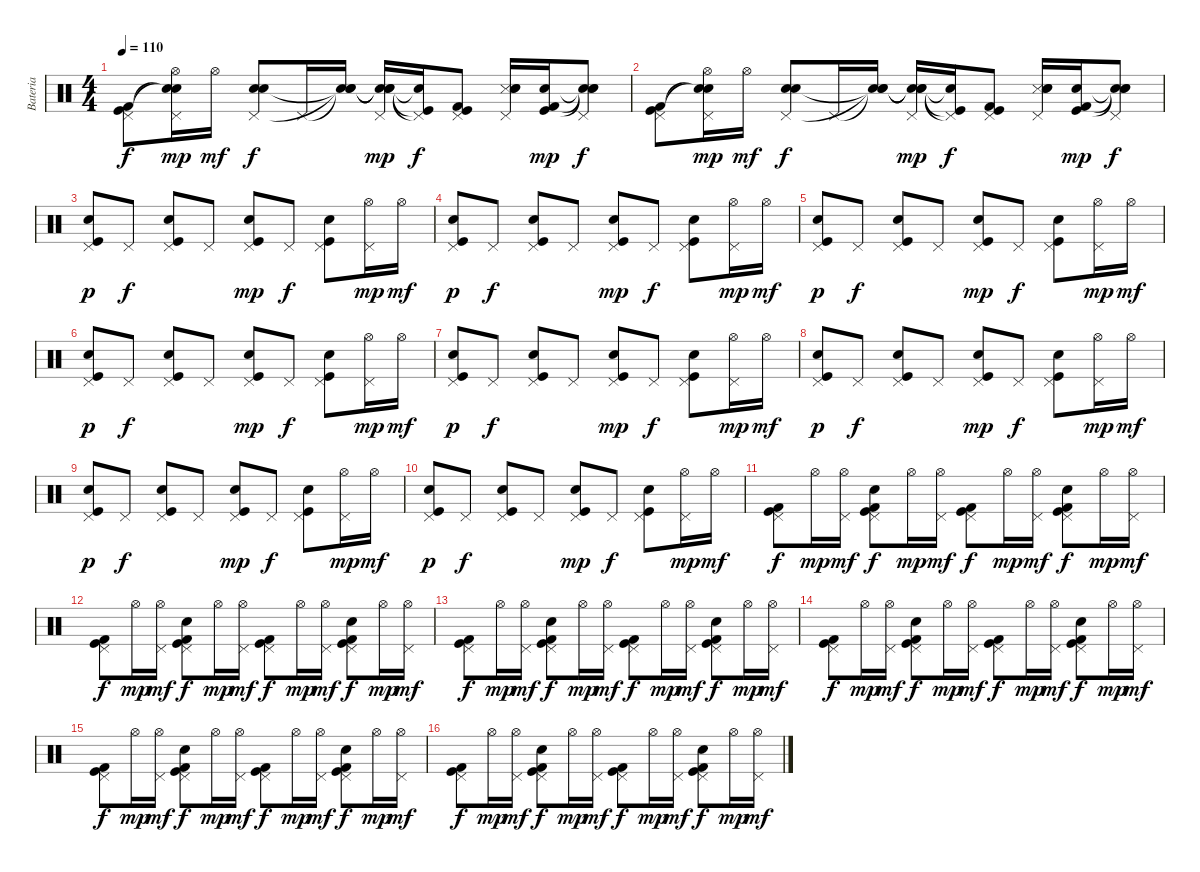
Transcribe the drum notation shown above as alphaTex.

\track ("Bateria" "Bateria") {instrument percussion}
\staff {score}
\articulation defaults
\ts (4 4)
\tempo 110
\clef neutral
\ks c
("Kick (hit)" "Kick (hit) 2" "Pedal Hi-Hat (hit)").8{dy f} ("Snare (hit)"{t} "Snare (hit)"{t} "Hi-Hat (open)" "Pedal Hi-Hat (hit)").16{dy mp} "Hi-Hat (open)".16{dy mf} ("Snare (hit) 2" "Electric Snare (hit)" "Pedal Hi-Hat (hit)").8{dy f} "Pedal Hi-Hat (hit)".16 ("Snare (hit)"{t} "Snare (hit)"{t} "Snare (hit)"{t}).16 ("Snare (hit)"{t} "Snare (hit)"{t} "Snare (hit)"{t} "Pedal Hi-Hat (hit)").16{dy mp} ("Snare (hit) 2"{t} "Pedal Hi-Hat (hit)"{t} "Kick (hit)"{t}).16{dy f} ("Kick (hit) 2" "Kick (hit)" "Pedal Hi-Hat (hit)").8 ("Snare (side stick) 3" "Electric Snare (hit)" "Snare (hit) 2" "Pedal Hi-Hat (hit)").16 ("Kick (hit) 2" "Snare (hit) 2" "Kick (hit)").16{dy mp} ("Snare (hit)"{t} "Snare (hit)"{t} "Snare (hit)"{t} "Pedal Hi-Hat (hit)").8{dy f} |
("Kick (hit)" "Kick (hit) 2" "Pedal Hi-Hat (hit)").8 ("Snare (hit)"{t} "Snare (hit)"{t} "Hi-Hat (open)" "Pedal Hi-Hat (hit)").16{dy mp} "Hi-Hat (open)".16{dy mf} ("Snare (hit) 2" "Electric Snare (hit)" "Pedal Hi-Hat (hit)").8{dy f} "Pedal Hi-Hat (hit)".16 ("Snare (hit)"{t} "Snare (hit)"{t} "Snare (hit)"{t}).16 ("Snare (hit)"{t} "Snare (hit)"{t} "Snare (hit)"{t} "Pedal Hi-Hat (hit)").16{dy mp} ("Snare (hit) 2"{t} "Pedal Hi-Hat (hit)"{t} "Kick (hit)"{t}).16{dy f} ("Kick (hit) 2" "Kick (hit)" "Pedal Hi-Hat (hit)").8 ("Snare (side stick) 3" "Electric Snare (hit)" "Snare (hit) 2" "Pedal Hi-Hat (hit)").16 ("Kick (hit) 2" "Snare (hit) 2" "Kick (hit)").16{dy mp} ("Snare (hit)"{t} "Snare (hit)"{t} "Snare (hit)"{t} "Pedal Hi-Hat (hit)").8{dy f} |
("Kick (hit)" "Electric Snare (hit)" "Pedal Hi-Hat (hit)").8{dy p} "Pedal Hi-Hat (hit)".8{dy f} ("Kick (hit)" "Electric Snare (hit)" "Pedal Hi-Hat (hit)").8 "Pedal Hi-Hat (hit)".8 ("Kick (hit)" "Electric Snare (hit)" "Pedal Hi-Hat (hit)").8{dy mp} "Pedal Hi-Hat (hit)".8{dy f} ("Kick (hit)" "Electric Snare (hit)" "Pedal Hi-Hat (hit)").8 ("Pedal Hi-Hat (hit)" "Hi-Hat (open)").16{dy mp} "Hi-Hat (open)".16{dy mf} |
("Kick (hit)" "Electric Snare (hit)" "Pedal Hi-Hat (hit)").8{dy p} "Pedal Hi-Hat (hit)".8{dy f} ("Kick (hit)" "Electric Snare (hit)" "Pedal Hi-Hat (hit)").8 "Pedal Hi-Hat (hit)".8 ("Kick (hit)" "Electric Snare (hit)" "Pedal Hi-Hat (hit)").8{dy mp} "Pedal Hi-Hat (hit)".8{dy f} ("Kick (hit)" "Electric Snare (hit)" "Pedal Hi-Hat (hit)").8 ("Pedal Hi-Hat (hit)" "Hi-Hat (open)").16{dy mp} "Hi-Hat (open)".16{dy mf} |
("Kick (hit)" "Electric Snare (hit)" "Pedal Hi-Hat (hit)").8{dy p} "Pedal Hi-Hat (hit)".8{dy f} ("Kick (hit)" "Electric Snare (hit)" "Pedal Hi-Hat (hit)").8 "Pedal Hi-Hat (hit)".8 ("Kick (hit)" "Electric Snare (hit)" "Pedal Hi-Hat (hit)").8{dy mp} "Pedal Hi-Hat (hit)".8{dy f} ("Kick (hit)" "Electric Snare (hit)" "Pedal Hi-Hat (hit)").8 ("Pedal Hi-Hat (hit)" "Hi-Hat (open)").16{dy mp} "Hi-Hat (open)".16{dy mf} |
("Kick (hit)" "Electric Snare (hit)" "Pedal Hi-Hat (hit)").8{dy p} "Pedal Hi-Hat (hit)".8{dy f} ("Kick (hit)" "Electric Snare (hit)" "Pedal Hi-Hat (hit)").8 "Pedal Hi-Hat (hit)".8 ("Kick (hit)" "Electric Snare (hit)" "Pedal Hi-Hat (hit)").8{dy mp} "Pedal Hi-Hat (hit)".8{dy f} ("Kick (hit)" "Electric Snare (hit)" "Pedal Hi-Hat (hit)").8 ("Pedal Hi-Hat (hit)" "Hi-Hat (open)").16{dy mp} "Hi-Hat (open)".16{dy mf} |
("Kick (hit)" "Electric Snare (hit)" "Pedal Hi-Hat (hit)").8{dy p} "Pedal Hi-Hat (hit)".8{dy f} ("Kick (hit)" "Electric Snare (hit)" "Pedal Hi-Hat (hit)").8 "Pedal Hi-Hat (hit)".8 ("Kick (hit)" "Electric Snare (hit)" "Pedal Hi-Hat (hit)").8{dy mp} "Pedal Hi-Hat (hit)".8{dy f} ("Kick (hit)" "Electric Snare (hit)" "Pedal Hi-Hat (hit)").8 ("Pedal Hi-Hat (hit)" "Hi-Hat (open)").16{dy mp} "Hi-Hat (open)".16{dy mf} |
("Kick (hit)" "Electric Snare (hit)" "Pedal Hi-Hat (hit)").8{dy p} "Pedal Hi-Hat (hit)".8{dy f} ("Kick (hit)" "Electric Snare (hit)" "Pedal Hi-Hat (hit)").8 "Pedal Hi-Hat (hit)".8 ("Kick (hit)" "Electric Snare (hit)" "Pedal Hi-Hat (hit)").8{dy mp} "Pedal Hi-Hat (hit)".8{dy f} ("Kick (hit)" "Electric Snare (hit)" "Pedal Hi-Hat (hit)").8 ("Pedal Hi-Hat (hit)" "Hi-Hat (open)").16{dy mp} "Hi-Hat (open)".16{dy mf} |
("Kick (hit)" "Electric Snare (hit)" "Pedal Hi-Hat (hit)").8{dy p} "Pedal Hi-Hat (hit)".8{dy f} ("Kick (hit)" "Electric Snare (hit)" "Pedal Hi-Hat (hit)").8 "Pedal Hi-Hat (hit)".8 ("Kick (hit)" "Electric Snare (hit)" "Pedal Hi-Hat (hit)").8{dy mp} "Pedal Hi-Hat (hit)".8{dy f} ("Kick (hit)" "Electric Snare (hit)" "Pedal Hi-Hat (hit)").8 ("Pedal Hi-Hat (hit)" "Hi-Hat (open)").16{dy mp} "Hi-Hat (open)".16{dy mf} |
("Kick (hit)" "Electric Snare (hit)" "Pedal Hi-Hat (hit)").8{dy p} "Pedal Hi-Hat (hit)".8{dy f} ("Kick (hit)" "Electric Snare (hit)" "Pedal Hi-Hat (hit)").8 "Pedal Hi-Hat (hit)".8 ("Kick (hit)" "Electric Snare (hit)" "Pedal Hi-Hat (hit)").8{dy mp} "Pedal Hi-Hat (hit)".8{dy f} ("Kick (hit)" "Electric Snare (hit)" "Pedal Hi-Hat (hit)").8 ("Pedal Hi-Hat (hit)" "Hi-Hat (open)").16{dy mp} "Hi-Hat (open)".16{dy mf} |
("Kick (hit)" "Kick (hit) 2" "Pedal Hi-Hat (hit)").8{dy f} "Hi-Hat (open)".16{dy mp} ("Hi-Hat (open)" "Pedal Hi-Hat (hit)").16{dy mf} ("Kick (hit) 2" "Kick (hit)" "Electric Snare (hit)" "Pedal Hi-Hat (hit)").8{dy f} "Hi-Hat (open)".16{dy mp} ("Hi-Hat (open)" "Pedal Hi-Hat (hit)").16{dy mf} ("Kick (hit) 2" "Kick (hit)" "Pedal Hi-Hat (hit)").8{dy f} "Hi-Hat (open)".16{dy mp} ("Hi-Hat (open)" "Pedal Hi-Hat (hit)").16{dy mf} ("Kick (hit) 2" "Kick (hit)" "Electric Snare (hit)" "Pedal Hi-Hat (hit)").8{dy f} "Hi-Hat (open)".16{dy mp} ("Hi-Hat (open)" "Pedal Hi-Hat (hit)").16{dy mf} |
("Kick (hit)" "Kick (hit) 2" "Pedal Hi-Hat (hit)").8{dy f} "Hi-Hat (open)".16{dy mp} ("Hi-Hat (open)" "Pedal Hi-Hat (hit)").16{dy mf} ("Kick (hit) 2" "Kick (hit)" "Electric Snare (hit)" "Pedal Hi-Hat (hit)").8{dy f} "Hi-Hat (open)".16{dy mp} ("Hi-Hat (open)" "Pedal Hi-Hat (hit)").16{dy mf} ("Kick (hit) 2" "Kick (hit)" "Pedal Hi-Hat (hit)").8{dy f} "Hi-Hat (open)".16{dy mp} ("Hi-Hat (open)" "Pedal Hi-Hat (hit)").16{dy mf} ("Kick (hit) 2" "Kick (hit)" "Electric Snare (hit)" "Pedal Hi-Hat (hit)").8{dy f} "Hi-Hat (open)".16{dy mp} ("Hi-Hat (open)" "Pedal Hi-Hat (hit)").16{dy mf} |
("Kick (hit)" "Kick (hit) 2" "Pedal Hi-Hat (hit)").8{dy f} "Hi-Hat (open)".16{dy mp} ("Hi-Hat (open)" "Pedal Hi-Hat (hit)").16{dy mf} ("Kick (hit) 2" "Kick (hit)" "Electric Snare (hit)" "Pedal Hi-Hat (hit)").8{dy f} "Hi-Hat (open)".16{dy mp} ("Hi-Hat (open)" "Pedal Hi-Hat (hit)").16{dy mf} ("Kick (hit) 2" "Kick (hit)" "Pedal Hi-Hat (hit)").8{dy f} "Hi-Hat (open)".16{dy mp} ("Hi-Hat (open)" "Pedal Hi-Hat (hit)").16{dy mf} ("Kick (hit) 2" "Kick (hit)" "Electric Snare (hit)" "Pedal Hi-Hat (hit)").8{dy f} "Hi-Hat (open)".16{dy mp} ("Hi-Hat (open)" "Pedal Hi-Hat (hit)").16{dy mf} |
("Kick (hit)" "Kick (hit) 2" "Pedal Hi-Hat (hit)").8{dy f} "Hi-Hat (open)".16{dy mp} ("Hi-Hat (open)" "Pedal Hi-Hat (hit)").16{dy mf} ("Kick (hit) 2" "Kick (hit)" "Electric Snare (hit)" "Pedal Hi-Hat (hit)").8{dy f} "Hi-Hat (open)".16{dy mp} ("Hi-Hat (open)" "Pedal Hi-Hat (hit)").16{dy mf} ("Kick (hit) 2" "Kick (hit)" "Pedal Hi-Hat (hit)").8{dy f} "Hi-Hat (open)".16{dy mp} ("Hi-Hat (open)" "Pedal Hi-Hat (hit)").16{dy mf} ("Kick (hit) 2" "Kick (hit)" "Electric Snare (hit)" "Pedal Hi-Hat (hit)").8{dy f} "Hi-Hat (open)".16{dy mp} ("Hi-Hat (open)" "Pedal Hi-Hat (hit)").16{dy mf} |
("Kick (hit)" "Kick (hit) 2" "Pedal Hi-Hat (hit)").8{dy f} "Hi-Hat (open)".16{dy mp} ("Hi-Hat (open)" "Pedal Hi-Hat (hit)").16{dy mf} ("Kick (hit) 2" "Kick (hit)" "Electric Snare (hit)" "Pedal Hi-Hat (hit)").8{dy f} "Hi-Hat (open)".16{dy mp} ("Hi-Hat (open)" "Pedal Hi-Hat (hit)").16{dy mf} ("Kick (hit) 2" "Kick (hit)" "Pedal Hi-Hat (hit)").8{dy f} "Hi-Hat (open)".16{dy mp} ("Hi-Hat (open)" "Pedal Hi-Hat (hit)").16{dy mf} ("Kick (hit) 2" "Kick (hit)" "Electric Snare (hit)" "Pedal Hi-Hat (hit)").8{dy f} "Hi-Hat (open)".16{dy mp} ("Hi-Hat (open)" "Pedal Hi-Hat (hit)").16{dy mf} |
("Kick (hit)" "Kick (hit) 2" "Pedal Hi-Hat (hit)").8{dy f} "Hi-Hat (open)".16{dy mp} ("Hi-Hat (open)" "Pedal Hi-Hat (hit)").16{dy mf} ("Kick (hit) 2" "Kick (hit)" "Electric Snare (hit)" "Pedal Hi-Hat (hit)").8{dy f} "Hi-Hat (open)".16{dy mp} ("Hi-Hat (open)" "Pedal Hi-Hat (hit)").16{dy mf} ("Kick (hit) 2" "Kick (hit)" "Pedal Hi-Hat (hit)").8{dy f} "Hi-Hat (open)".16{dy mp} ("Hi-Hat (open)" "Pedal Hi-Hat (hit)").16{dy mf} ("Kick (hit) 2" "Kick (hit)" "Electric Snare (hit)" "Pedal Hi-Hat (hit)").8{dy f} "Hi-Hat (open)".16{dy mp} ("Hi-Hat (open)" "Pedal Hi-Hat (hit)").16{dy mf}
